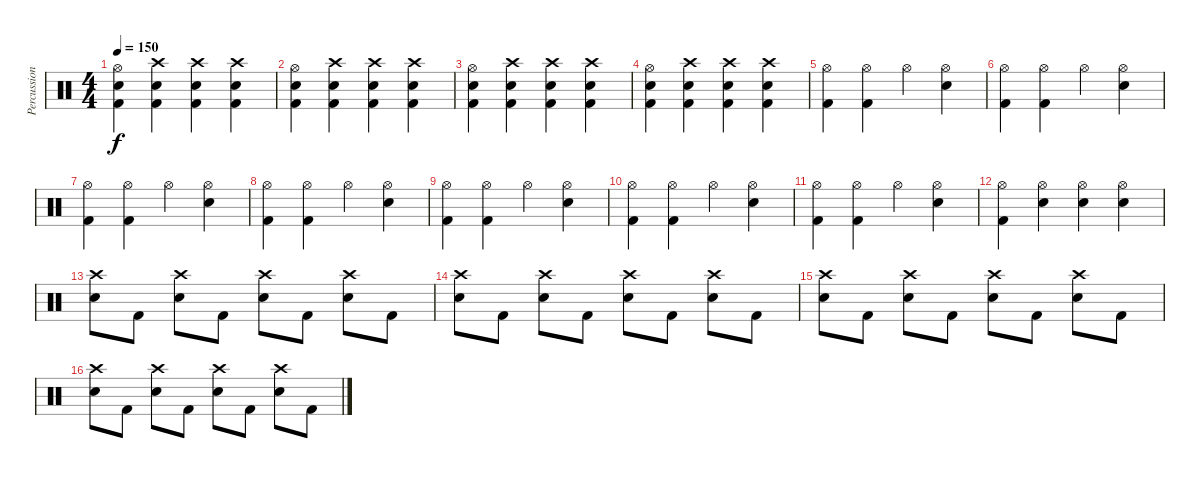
\track ("Percussion" "Percussion") {instrument percussion}
\staff {score}
\articulation defaults
\ts (4 4)
\tempo 150
\clef neutral
\ks c
("Hi-Hat (open)" "Electric Snare (hit)" "Kick (hit) 2").4{dy f} ("Crash high (hit)" "Electric Snare (hit)" "Kick (hit) 2").4 ("Crash high (hit)" "Electric Snare (hit)" "Kick (hit) 2").4 ("Crash high (hit)" "Electric Snare (hit)" "Kick (hit) 2").4 |
("Hi-Hat (open)" "Electric Snare (hit)" "Kick (hit) 2").4 ("Crash high (hit)" "Electric Snare (hit)" "Kick (hit) 2").4 ("Crash high (hit)" "Electric Snare (hit)" "Kick (hit) 2").4 ("Crash high (hit)" "Electric Snare (hit)" "Kick (hit) 2").4 |
("Hi-Hat (open)" "Electric Snare (hit)" "Kick (hit) 2").4 ("Crash high (hit)" "Electric Snare (hit)" "Kick (hit) 2").4 ("Crash high (hit)" "Electric Snare (hit)" "Kick (hit) 2").4 ("Crash high (hit)" "Electric Snare (hit)" "Kick (hit) 2").4 |
("Hi-Hat (open)" "Electric Snare (hit)" "Kick (hit) 2").4 ("Crash high (hit)" "Electric Snare (hit)" "Kick (hit) 2").4 ("Crash high (hit)" "Electric Snare (hit)" "Kick (hit) 2").4 ("Crash high (hit)" "Electric Snare (hit)" "Kick (hit) 2").4 |
("Hi-Hat (open)" "Kick (hit) 2").4 ("Hi-Hat (open)" "Kick (hit) 2").4 "Hi-Hat (open)".4 ("Hi-Hat (open)" "Electric Snare (hit)").4 |
("Hi-Hat (open)" "Kick (hit) 2").4 ("Hi-Hat (open)" "Kick (hit) 2").4 "Hi-Hat (open)".4 ("Hi-Hat (open)" "Electric Snare (hit)").4 |
("Hi-Hat (open)" "Kick (hit) 2").4 ("Hi-Hat (open)" "Kick (hit) 2").4 "Hi-Hat (open)".4 ("Hi-Hat (open)" "Electric Snare (hit)").4 |
("Hi-Hat (open)" "Kick (hit) 2").4 ("Hi-Hat (open)" "Kick (hit) 2").4 "Hi-Hat (open)".4 ("Hi-Hat (open)" "Electric Snare (hit)").4 |
("Hi-Hat (open)" "Kick (hit) 2").4 ("Hi-Hat (open)" "Kick (hit) 2").4 "Hi-Hat (open)".4 ("Hi-Hat (open)" "Electric Snare (hit)").4 |
("Hi-Hat (open)" "Kick (hit) 2").4 ("Hi-Hat (open)" "Kick (hit) 2").4 "Hi-Hat (open)".4 ("Hi-Hat (open)" "Electric Snare (hit)").4 |
("Hi-Hat (open)" "Kick (hit) 2").4 ("Hi-Hat (open)" "Kick (hit) 2").4 "Hi-Hat (open)".4 ("Hi-Hat (open)" "Electric Snare (hit)").4 |
("Hi-Hat (open)" "Kick (hit) 2").4 ("Hi-Hat (open)" "Electric Snare (hit)").4 ("Hi-Hat (open)" "Electric Snare (hit)").4 ("Hi-Hat (open)" "Electric Snare (hit)").4 |
("Crash high (hit)" "Electric Snare (hit)").8 "Kick (hit) 2".8 ("Crash high (hit)" "Electric Snare (hit)").8 "Kick (hit) 2".8 ("Crash high (hit)" "Electric Snare (hit)").8 "Kick (hit) 2".8 ("Crash high (hit)" "Electric Snare (hit)").8 "Kick (hit) 2".8 |
("Crash high (hit)" "Electric Snare (hit)").8 "Kick (hit) 2".8 ("Crash high (hit)" "Electric Snare (hit)").8 "Kick (hit) 2".8 ("Crash high (hit)" "Electric Snare (hit)").8 "Kick (hit) 2".8 ("Crash high (hit)" "Electric Snare (hit)").8 "Kick (hit) 2".8 |
("Crash high (hit)" "Electric Snare (hit)").8 "Kick (hit) 2".8 ("Crash high (hit)" "Electric Snare (hit)").8 "Kick (hit) 2".8 ("Crash high (hit)" "Electric Snare (hit)").8 "Kick (hit) 2".8 ("Crash high (hit)" "Electric Snare (hit)").8 "Kick (hit) 2".8 |
("Crash high (hit)" "Electric Snare (hit)").8 "Kick (hit) 2".8 ("Crash high (hit)" "Electric Snare (hit)").8 "Kick (hit) 2".8 ("Crash high (hit)" "Electric Snare (hit)").8 "Kick (hit) 2".8 ("Crash high (hit)" "Electric Snare (hit)").8 "Kick (hit) 2".8
